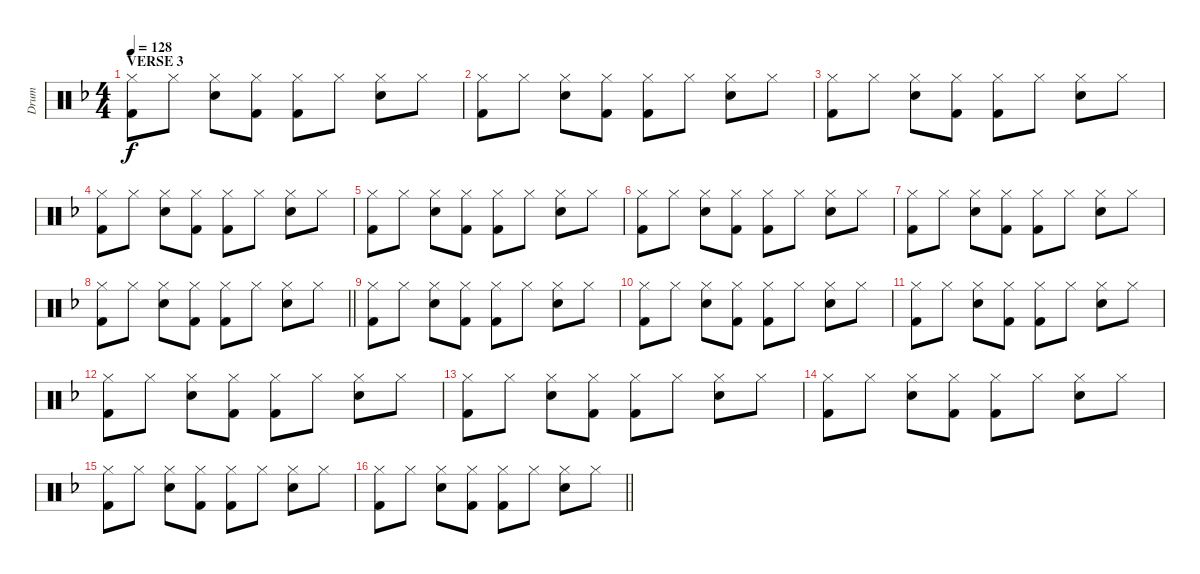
\track ("Drum" "Drum") {instrument percussion}
\staff {score}
\articulation defaults
\ts (4 4)
\section ("" "VERSE 3")
\tempo 128
\clef neutral
\ks f
("Hi-Hat (closed)" "Kick (hit) 2").8{dy f} "Hi-Hat (closed)".8 ("Hi-Hat (closed)" "Electric Snare (hit)").8 ("Hi-Hat (closed)" "Kick (hit) 2").8 ("Hi-Hat (closed)" "Kick (hit) 2").8 "Hi-Hat (closed)".8 ("Hi-Hat (closed)" "Electric Snare (hit)").8 "Hi-Hat (closed)".8 |
("Hi-Hat (closed)" "Kick (hit) 2").8 "Hi-Hat (closed)".8 ("Hi-Hat (closed)" "Electric Snare (hit)").8 ("Hi-Hat (closed)" "Kick (hit) 2").8 ("Hi-Hat (closed)" "Kick (hit) 2").8 "Hi-Hat (closed)".8 ("Hi-Hat (closed)" "Electric Snare (hit)").8 "Hi-Hat (closed)".8 |
("Hi-Hat (closed)" "Kick (hit) 2").8 "Hi-Hat (closed)".8 ("Hi-Hat (closed)" "Electric Snare (hit)").8 ("Hi-Hat (closed)" "Kick (hit) 2").8 ("Hi-Hat (closed)" "Kick (hit) 2").8 "Hi-Hat (closed)".8 ("Hi-Hat (closed)" "Electric Snare (hit)").8 "Hi-Hat (closed)".8 |
("Hi-Hat (closed)" "Kick (hit) 2").8 "Hi-Hat (closed)".8 ("Hi-Hat (closed)" "Electric Snare (hit)").8 ("Hi-Hat (closed)" "Kick (hit) 2").8 ("Hi-Hat (closed)" "Kick (hit) 2").8 "Hi-Hat (closed)".8 ("Hi-Hat (closed)" "Electric Snare (hit)").8 "Hi-Hat (closed)".8 |
("Hi-Hat (closed)" "Kick (hit) 2").8 "Hi-Hat (closed)".8 ("Hi-Hat (closed)" "Electric Snare (hit)").8 ("Hi-Hat (closed)" "Kick (hit) 2").8 ("Hi-Hat (closed)" "Kick (hit) 2").8 "Hi-Hat (closed)".8 ("Hi-Hat (closed)" "Electric Snare (hit)").8 "Hi-Hat (closed)".8 |
("Hi-Hat (closed)" "Kick (hit) 2").8 "Hi-Hat (closed)".8 ("Hi-Hat (closed)" "Electric Snare (hit)").8 ("Hi-Hat (closed)" "Kick (hit) 2").8 ("Hi-Hat (closed)" "Kick (hit) 2").8 "Hi-Hat (closed)".8 ("Hi-Hat (closed)" "Electric Snare (hit)").8 "Hi-Hat (closed)".8 |
("Hi-Hat (closed)" "Kick (hit) 2").8 "Hi-Hat (closed)".8 ("Hi-Hat (closed)" "Electric Snare (hit)").8 ("Hi-Hat (closed)" "Kick (hit) 2").8 ("Hi-Hat (closed)" "Kick (hit) 2").8 "Hi-Hat (closed)".8 ("Hi-Hat (closed)" "Electric Snare (hit)").8 "Hi-Hat (closed)".8 |
\barLineRight lightlight
("Hi-Hat (closed)" "Kick (hit) 2").8 "Hi-Hat (closed)".8 ("Hi-Hat (closed)" "Electric Snare (hit)").8 ("Hi-Hat (closed)" "Kick (hit) 2").8 ("Hi-Hat (closed)" "Kick (hit) 2").8 "Hi-Hat (closed)".8 ("Hi-Hat (closed)" "Electric Snare (hit)").8 "Hi-Hat (closed)".8 |
("Hi-Hat (closed)" "Kick (hit) 2").8 "Hi-Hat (closed)".8 ("Hi-Hat (closed)" "Electric Snare (hit)").8 ("Hi-Hat (closed)" "Kick (hit) 2").8 ("Hi-Hat (closed)" "Kick (hit) 2").8 "Hi-Hat (closed)".8 ("Hi-Hat (closed)" "Electric Snare (hit)").8 "Hi-Hat (closed)".8 |
("Hi-Hat (closed)" "Kick (hit) 2").8 "Hi-Hat (closed)".8 ("Hi-Hat (closed)" "Electric Snare (hit)").8 ("Hi-Hat (closed)" "Kick (hit) 2").8 ("Hi-Hat (closed)" "Kick (hit) 2").8 "Hi-Hat (closed)".8 ("Hi-Hat (closed)" "Electric Snare (hit)").8 "Hi-Hat (closed)".8 |
("Hi-Hat (closed)" "Kick (hit) 2").8 "Hi-Hat (closed)".8 ("Hi-Hat (closed)" "Electric Snare (hit)").8 ("Hi-Hat (closed)" "Kick (hit) 2").8 ("Hi-Hat (closed)" "Kick (hit) 2").8 "Hi-Hat (closed)".8 ("Hi-Hat (closed)" "Electric Snare (hit)").8 "Hi-Hat (closed)".8 |
("Hi-Hat (closed)" "Kick (hit) 2").8 "Hi-Hat (closed)".8 ("Hi-Hat (closed)" "Electric Snare (hit)").8 ("Hi-Hat (closed)" "Kick (hit) 2").8 ("Hi-Hat (closed)" "Kick (hit) 2").8 "Hi-Hat (closed)".8 ("Hi-Hat (closed)" "Electric Snare (hit)").8 "Hi-Hat (closed)".8 |
("Hi-Hat (closed)" "Kick (hit) 2").8 "Hi-Hat (closed)".8 ("Hi-Hat (closed)" "Electric Snare (hit)").8 ("Hi-Hat (closed)" "Kick (hit) 2").8 ("Hi-Hat (closed)" "Kick (hit) 2").8 "Hi-Hat (closed)".8 ("Hi-Hat (closed)" "Electric Snare (hit)").8 "Hi-Hat (closed)".8 |
("Hi-Hat (closed)" "Kick (hit) 2").8 "Hi-Hat (closed)".8 ("Hi-Hat (closed)" "Electric Snare (hit)").8 ("Hi-Hat (closed)" "Kick (hit) 2").8 ("Hi-Hat (closed)" "Kick (hit) 2").8 "Hi-Hat (closed)".8 ("Hi-Hat (closed)" "Electric Snare (hit)").8 "Hi-Hat (closed)".8 |
("Hi-Hat (closed)" "Kick (hit) 2").8 "Hi-Hat (closed)".8 ("Hi-Hat (closed)" "Electric Snare (hit)").8 ("Hi-Hat (closed)" "Kick (hit) 2").8 ("Hi-Hat (closed)" "Kick (hit) 2").8 "Hi-Hat (closed)".8 ("Hi-Hat (closed)" "Electric Snare (hit)").8 "Hi-Hat (closed)".8 |
\barLineRight lightlight
("Hi-Hat (closed)" "Kick (hit) 2").8 "Hi-Hat (closed)".8 ("Hi-Hat (closed)" "Electric Snare (hit)").8 ("Hi-Hat (closed)" "Kick (hit) 2").8 ("Hi-Hat (closed)" "Kick (hit) 2").8 "Hi-Hat (closed)".8 ("Hi-Hat (closed)" "Electric Snare (hit)").8 "Hi-Hat (closed)".8
